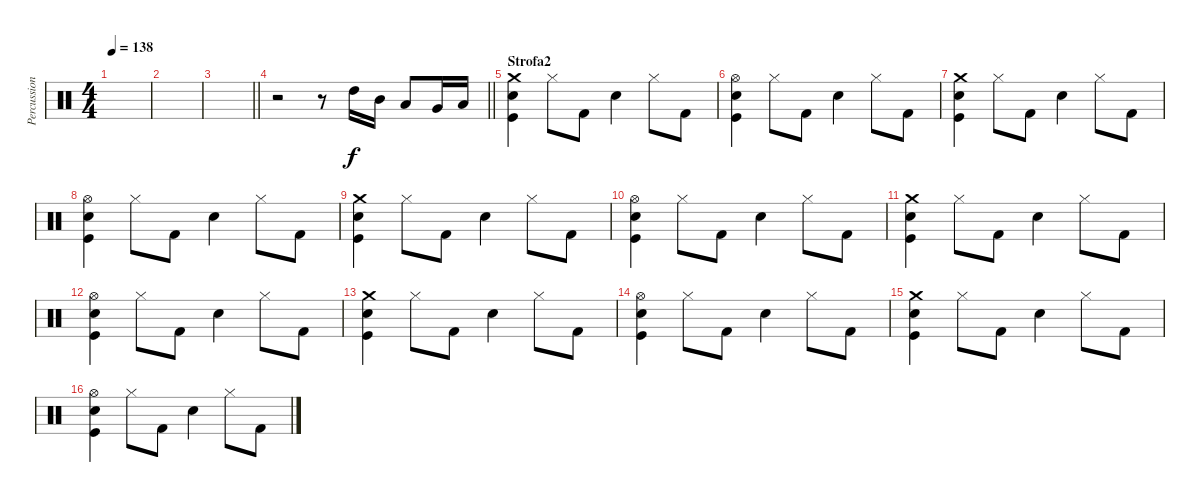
\track ("Percussioni" "Percussion") {instrument percussion}
\staff {score}
\articulation defaults
\ts (4 4)
\tempo 138
\clef neutral
\ks c
|
|
\barLineRight lightlight
|
\barLineRight lightlight
r.2 r.8 "High Tom (hit)".16 "Mid Tom (hit)".16 "Low Tom (hit)".8 "Very Low Tom (hit)".16 "Low Floor Tom (hit)".16 |
\section ("" "Strofa2")
("Crash medium (hit)" "Electric Snare (hit)" "Kick (hit)").4{volume 10} "Hi-Hat (closed)".8 "Kick (hit) 2".8 "Electric Snare (hit)".4 "Hi-Hat (closed)".8 "Kick (hit) 2".8 |
("Hi-Hat (open)" "Electric Snare (hit)" "Kick (hit)").4 "Hi-Hat (closed)".8 "Kick (hit) 2".8 "Electric Snare (hit)".4 "Hi-Hat (closed)".8 "Kick (hit) 2".8 |
("Crash medium (hit)" "Electric Snare (hit)" "Kick (hit)").4 "Hi-Hat (closed)".8 "Kick (hit) 2".8 "Electric Snare (hit)".4 "Hi-Hat (closed)".8 "Kick (hit) 2".8 |
("Hi-Hat (open)" "Electric Snare (hit)" "Kick (hit)").4 "Hi-Hat (closed)".8 "Kick (hit) 2".8 "Electric Snare (hit)".4 "Hi-Hat (closed)".8 "Kick (hit) 2".8 |
("Crash medium (hit)" "Electric Snare (hit)" "Kick (hit)").4 "Hi-Hat (closed)".8 "Kick (hit) 2".8 "Electric Snare (hit)".4 "Hi-Hat (closed)".8 "Kick (hit) 2".8 |
("Hi-Hat (open)" "Electric Snare (hit)" "Kick (hit)").4 "Hi-Hat (closed)".8 "Kick (hit) 2".8 "Electric Snare (hit)".4 "Hi-Hat (closed)".8 "Kick (hit) 2".8 |
("Crash medium (hit)" "Electric Snare (hit)" "Kick (hit)").4 "Hi-Hat (closed)".8 "Kick (hit) 2".8 "Electric Snare (hit)".4 "Hi-Hat (closed)".8 "Kick (hit) 2".8 |
("Hi-Hat (open)" "Electric Snare (hit)" "Kick (hit)").4 "Hi-Hat (closed)".8 "Kick (hit) 2".8 "Electric Snare (hit)".4 "Hi-Hat (closed)".8 "Kick (hit) 2".8 |
("Crash medium (hit)" "Electric Snare (hit)" "Kick (hit)").4 "Hi-Hat (closed)".8 "Kick (hit) 2".8 "Electric Snare (hit)".4 "Hi-Hat (closed)".8 "Kick (hit) 2".8 |
("Hi-Hat (open)" "Electric Snare (hit)" "Kick (hit)").4 "Hi-Hat (closed)".8 "Kick (hit) 2".8 "Electric Snare (hit)".4 "Hi-Hat (closed)".8 "Kick (hit) 2".8 |
("Crash medium (hit)" "Electric Snare (hit)" "Kick (hit)").4 "Hi-Hat (closed)".8 "Kick (hit) 2".8 "Electric Snare (hit)".4 "Hi-Hat (closed)".8 "Kick (hit) 2".8 |
("Hi-Hat (open)" "Electric Snare (hit)" "Kick (hit)").4 "Hi-Hat (closed)".8 "Kick (hit) 2".8 "Electric Snare (hit)".4 "Hi-Hat (closed)".8 "Kick (hit) 2".8
